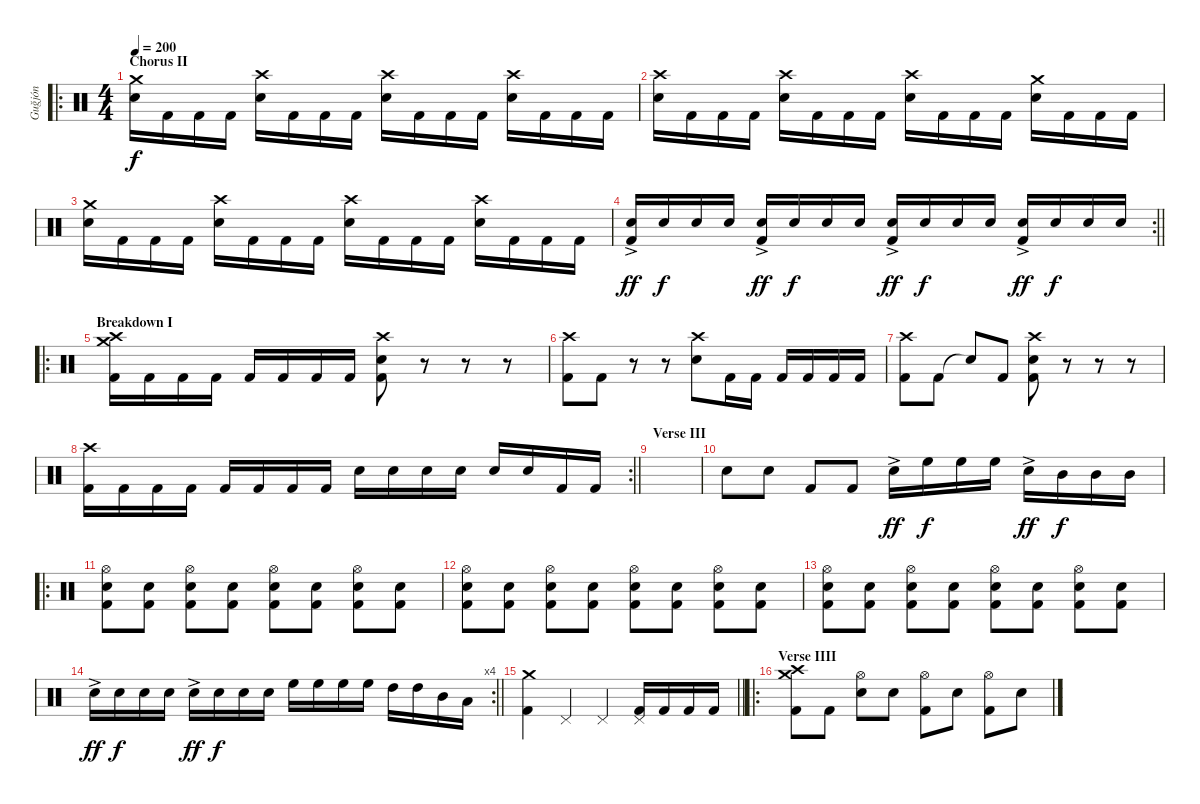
\track ("Guğjón" "Guğjón") {instrument percussion}
\staff {score}
\articulation defaults
\ro
\ts (4 4)
\section ("" "Chorus II")
\tempo 200
\clef neutral
\ks c
("Crash medium (hit)" "Electric Snare (hit)").16{dy f} "Kick (hit) 2".16 "Kick (hit) 2".16 "Kick (hit) 2".16 ("Crash high (hit)" "Electric Snare (hit)").16 "Kick (hit) 2".16 "Kick (hit) 2".16 "Kick (hit) 2".16 ("Crash high (hit)" "Electric Snare (hit)").16 "Kick (hit) 2".16 "Kick (hit) 2".16 "Kick (hit) 2".16 ("Crash high (hit)" "Electric Snare (hit)").16 "Kick (hit) 2".16 "Kick (hit) 2".16 "Kick (hit) 2".16 |
("Crash high (hit)" "Electric Snare (hit)").16 "Kick (hit) 2".16 "Kick (hit) 2".16 "Kick (hit) 2".16 ("Crash high (hit)" "Electric Snare (hit)").16 "Kick (hit) 2".16 "Kick (hit) 2".16 "Kick (hit) 2".16 ("Crash high (hit)" "Electric Snare (hit)").16 "Kick (hit) 2".16 "Kick (hit) 2".16 "Kick (hit) 2".16 ("Crash medium (hit)" "Electric Snare (hit)").16 "Kick (hit) 2".16 "Kick (hit) 2".16 "Kick (hit) 2".16 |
("Crash medium (hit)" "Electric Snare (hit)").16 "Kick (hit) 2".16 "Kick (hit) 2".16 "Kick (hit) 2".16 ("Crash high (hit)" "Electric Snare (hit)").16 "Kick (hit) 2".16 "Kick (hit) 2".16 "Kick (hit) 2".16 ("Crash high (hit)" "Electric Snare (hit)").16 "Kick (hit) 2".16 "Kick (hit) 2".16 "Kick (hit) 2".16 ("Crash high (hit)" "Electric Snare (hit)").16 "Kick (hit) 2".16 "Kick (hit) 2".16 "Kick (hit) 2".16 |
\rc 2
\barLineRight lightlight
("Electric Snare (hit)"{ac} "Kick (hit) 2"{ac}).16{dy ff} "Electric Snare (hit)".16{dy f} "Electric Snare (hit)".16 "Electric Snare (hit)".16 ("Electric Snare (hit)"{ac} "Kick (hit) 2"{ac}).16{dy ff} "Electric Snare (hit)".16{dy f} "Electric Snare (hit)".16 "Electric Snare (hit)".16 ("Electric Snare (hit)"{ac} "Kick (hit) 2"{ac}).16{dy ff} "Electric Snare (hit)".16{dy f} "Electric Snare (hit)".16 "Electric Snare (hit)".16 ("Electric Snare (hit)"{ac} "Kick (hit) 2"{ac}).16{dy ff} "Electric Snare (hit)".16{dy f} "Electric Snare (hit)".16 "Electric Snare (hit)".16 |
\ro
\section ("" "Breakdown I")
("Crash medium (hit)" "Crash high (hit)" "Kick (hit) 2").16 "Kick (hit) 2".16 "Kick (hit) 2".16 "Kick (hit) 2".16 "Kick (hit) 2".16 "Kick (hit) 2".16 "Kick (hit) 2".16 "Kick (hit) 2".16 ("Crash high (hit)" "Electric Snare (hit)" "Kick (hit) 2").8 r.8 r.8 r.8 |
("Crash high (hit)" "Kick (hit) 2").8 "Kick (hit) 2".8 r.8 r.8 ("Crash high (hit)" "Electric Snare (hit)").8 "Kick (hit) 2".16 "Kick (hit) 2".16 "Kick (hit) 2".16 "Kick (hit) 2".16 "Kick (hit) 2".16 "Kick (hit) 2".16 |
("Crash high (hit)" "Kick (hit) 2").8 "Kick (hit) 2".8 "Snare (hit)"{t}.8 "Kick (hit) 2".8 ("Crash high (hit)" "Electric Snare (hit)" "Kick (hit) 2").8 r.8 r.8 r.8 |
\rc 2
\barLineRight lightlight
("Crash high (hit)" "Kick (hit) 2").16 "Kick (hit) 2".16 "Kick (hit) 2".16 "Kick (hit) 2".16 "Kick (hit) 2".16 "Kick (hit) 2".16 "Kick (hit) 2".16 "Kick (hit) 2".16 "Electric Snare (hit)".16 "Electric Snare (hit)".16 "Electric Snare (hit)".16 "Electric Snare (hit)".16 "Electric Snare (hit)".16 "Electric Snare (hit)".16 "Kick (hit) 2".16 "Kick (hit) 2".16 |
\section ("" "Verse III")
|
"Electric Snare (hit)".8 "Electric Snare (hit)".8 "Kick (hit) 2".8 "Kick (hit) 2".8 "Electric Snare (hit)"{ac}.16{dy ff} "High Floor Tom (hit)".16{dy f} "High Floor Tom (hit)".16 "High Floor Tom (hit)".16 "Electric Snare (hit)"{ac}.16{dy ff} "Mid Tom (hit)".16{dy f} "Mid Tom (hit)".16 "Mid Tom (hit)".16 |
\ro
("Hi-Hat (open)" "Electric Snare (hit)" "Kick (hit) 2").8 ("Electric Snare (hit)" "Kick (hit) 2").8 ("Hi-Hat (open)" "Electric Snare (hit)" "Kick (hit) 2").8 ("Electric Snare (hit)" "Kick (hit) 2").8 ("Hi-Hat (open)" "Electric Snare (hit)" "Kick (hit) 2").8 ("Electric Snare (hit)" "Kick (hit) 2").8 ("Hi-Hat (open)" "Electric Snare (hit)" "Kick (hit) 2").8 ("Electric Snare (hit)" "Kick (hit) 2").8 |
("Hi-Hat (open)" "Electric Snare (hit)" "Kick (hit) 2").8 ("Electric Snare (hit)" "Kick (hit) 2").8 ("Hi-Hat (open)" "Electric Snare (hit)" "Kick (hit) 2").8 ("Electric Snare (hit)" "Kick (hit) 2").8 ("Hi-Hat (open)" "Electric Snare (hit)" "Kick (hit) 2").8 ("Electric Snare (hit)" "Kick (hit) 2").8 ("Hi-Hat (open)" "Electric Snare (hit)" "Kick (hit) 2").8 ("Electric Snare (hit)" "Kick (hit) 2").8 |
("Hi-Hat (open)" "Electric Snare (hit)" "Kick (hit) 2").8 ("Electric Snare (hit)" "Kick (hit) 2").8 ("Hi-Hat (open)" "Electric Snare (hit)" "Kick (hit) 2").8 ("Electric Snare (hit)" "Kick (hit) 2").8 ("Hi-Hat (open)" "Electric Snare (hit)" "Kick (hit) 2").8 ("Electric Snare (hit)" "Kick (hit) 2").8 ("Hi-Hat (open)" "Electric Snare (hit)" "Kick (hit) 2").8 ("Electric Snare (hit)" "Kick (hit) 2").8 |
\rc 4
\barLineRight lightlight "Electric Snare (hit)"{ac}.16{dy ff} "Electric Snare (hit)".16{dy f} "Electric Snare (hit)".16 "Electric Snare (hit)".16 "Electric Snare (hit)"{ac}.16{dy ff} "Electric Snare (hit)".16{dy f} "Electric Snare (hit)".16 "Electric Snare (hit)".16 "High Floor Tom (hit)".16 "High Floor Tom (hit)".16 "High Floor Tom (hit)".16 "High Floor Tom (hit)".16 "High Tom (hit)".16 "High Tom (hit)".16 "Mid Tom (hit)".16 "Low Tom (hit)".16
|
\barLineRight lightlight
("Crash medium (hit)" "Kick (hit) 2").4 "Pedal Hi-Hat (hit)".4 "Pedal Hi-Hat (hit)".4 ("Pedal Hi-Hat (hit)" "Kick (hit) 2").16 "Kick (hit) 2".16 "Kick (hit) 2".16 "Kick (hit) 2".16 |
\ro
\section ("" "Verse IIII")
("Crash medium (hit)" "Crash high (hit)" "Kick (hit) 2").8 "Kick (hit) 2".8 ("Hi-Hat (open)" "Electric Snare (hit)").8 "Electric Snare (hit)".8 ("Hi-Hat (open)" "Kick (hit) 2").8 "Electric Snare (hit)".8 ("Hi-Hat (open)" "Kick (hit) 2").8 "Electric Snare (hit)".8
